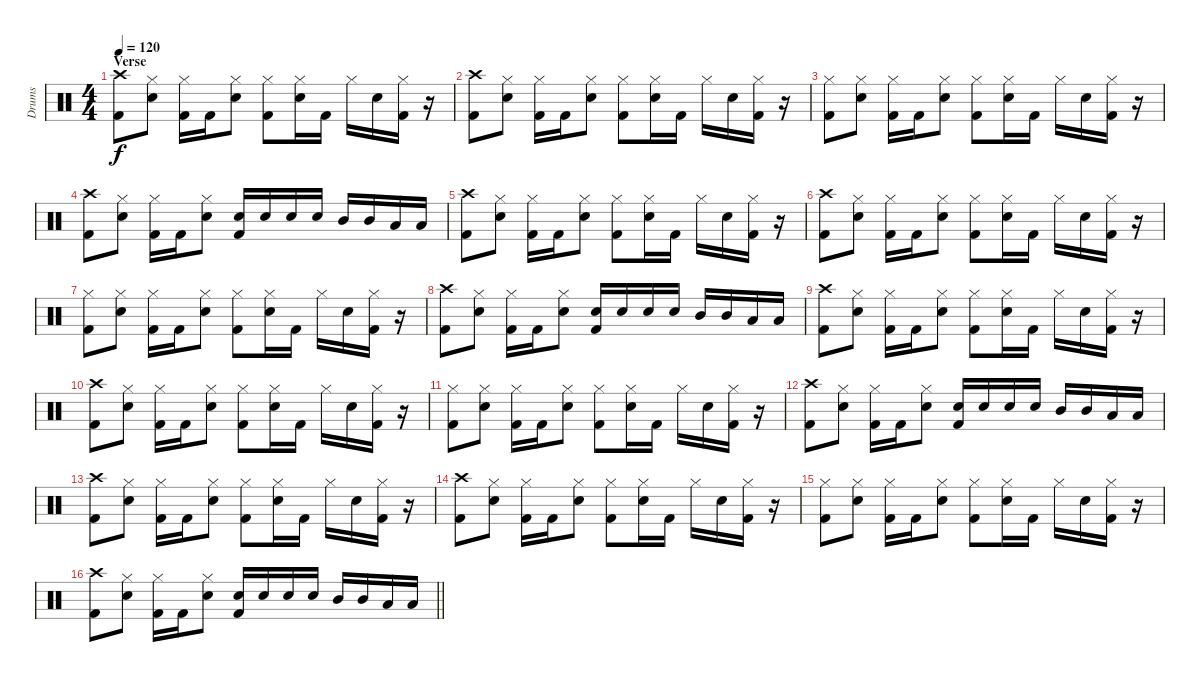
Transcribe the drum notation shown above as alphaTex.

\track ("Drums" "Drums") {instrument percussion}
\staff {score}
\articulation defaults
\ts (4 4)
\section ("" "Verse")
\tempo 120
\clef neutral
\ks c
("Crash high (hit)" "Kick (hit) 2").8{dy f} ("Hi-Hat (closed)" "Snare (hit) 2").8 ("Hi-Hat (closed)" "Kick (hit) 2").16 "Kick (hit) 2".16 ("Hi-Hat (closed)" "Snare (hit) 2").8 ("Hi-Hat (closed)" "Kick (hit) 2").8 ("Hi-Hat (closed)" "Snare (hit) 2").16 "Kick (hit) 2".16 "Hi-Hat (closed)".16 "Snare (hit) 2".16 ("Hi-Hat (closed)" "Kick (hit) 2").16 r.16 |
("Crash high (hit)" "Kick (hit) 2").8 ("Hi-Hat (closed)" "Snare (hit) 2").8 ("Hi-Hat (closed)" "Kick (hit) 2").16 "Kick (hit) 2".16 ("Hi-Hat (closed)" "Snare (hit) 2").8 ("Hi-Hat (closed)" "Kick (hit) 2").8 ("Hi-Hat (closed)" "Snare (hit) 2").16 "Kick (hit) 2".16 "Hi-Hat (closed)".16 "Snare (hit) 2".16 ("Hi-Hat (closed)" "Kick (hit) 2").16 r.16 |
("Hi-Hat (closed)" "Kick (hit) 2").8 ("Hi-Hat (closed)" "Snare (hit) 2").8 ("Hi-Hat (closed)" "Kick (hit) 2").16 "Kick (hit) 2".16 ("Hi-Hat (closed)" "Snare (hit) 2").8 ("Hi-Hat (closed)" "Kick (hit) 2").8 ("Hi-Hat (closed)" "Snare (hit) 2").16 "Kick (hit) 2".16 "Hi-Hat (closed)".16 "Snare (hit) 2".16 ("Hi-Hat (closed)" "Kick (hit) 2").16 r.16 |
("Crash high (hit)" "Kick (hit) 2").8 ("Hi-Hat (closed)" "Snare (hit) 2").8 ("Hi-Hat (closed)" "Kick (hit) 2").16 "Kick (hit) 2".16 ("Hi-Hat (closed)" "Snare (hit) 2").8 ("Snare (hit) 2" "Kick (hit) 2").16 "Snare (hit) 2".16 "Snare (hit) 2".16 "Snare (hit) 2".16 "Mid Tom (hit)".16 "Mid Tom (hit)".16 "Low Tom (hit)".16 "Low Tom (hit)".16 |
("Crash high (hit)" "Kick (hit) 2").8 ("Hi-Hat (closed)" "Snare (hit) 2").8 ("Hi-Hat (closed)" "Kick (hit) 2").16 "Kick (hit) 2".16 ("Hi-Hat (closed)" "Snare (hit) 2").8 ("Hi-Hat (closed)" "Kick (hit) 2").8 ("Hi-Hat (closed)" "Snare (hit) 2").16 "Kick (hit) 2".16 "Hi-Hat (closed)".16 "Snare (hit) 2".16 ("Hi-Hat (closed)" "Kick (hit) 2").16 r.16 |
("Crash high (hit)" "Kick (hit) 2").8 ("Hi-Hat (closed)" "Snare (hit) 2").8 ("Hi-Hat (closed)" "Kick (hit) 2").16 "Kick (hit) 2".16 ("Hi-Hat (closed)" "Snare (hit) 2").8 ("Hi-Hat (closed)" "Kick (hit) 2").8 ("Hi-Hat (closed)" "Snare (hit) 2").16 "Kick (hit) 2".16 "Hi-Hat (closed)".16 "Snare (hit) 2".16 ("Hi-Hat (closed)" "Kick (hit) 2").16 r.16 |
("Hi-Hat (closed)" "Kick (hit) 2").8 ("Hi-Hat (closed)" "Snare (hit) 2").8 ("Hi-Hat (closed)" "Kick (hit) 2").16 "Kick (hit) 2".16 ("Hi-Hat (closed)" "Snare (hit) 2").8 ("Hi-Hat (closed)" "Kick (hit) 2").8 ("Hi-Hat (closed)" "Snare (hit) 2").16 "Kick (hit) 2".16 "Hi-Hat (closed)".16 "Snare (hit) 2".16 ("Hi-Hat (closed)" "Kick (hit) 2").16 r.16 |
("Crash high (hit)" "Kick (hit) 2").8 ("Hi-Hat (closed)" "Snare (hit) 2").8 ("Hi-Hat (closed)" "Kick (hit) 2").16 "Kick (hit) 2".16 ("Hi-Hat (closed)" "Snare (hit) 2").8 ("Snare (hit) 2" "Kick (hit) 2").16 "Snare (hit) 2".16 "Snare (hit) 2".16 "Snare (hit) 2".16 "Mid Tom (hit)".16 "Mid Tom (hit)".16 "Low Tom (hit)".16 "Low Tom (hit)".16 |
("Crash high (hit)" "Kick (hit) 2").8 ("Hi-Hat (closed)" "Snare (hit) 2").8 ("Hi-Hat (closed)" "Kick (hit) 2").16 "Kick (hit) 2".16 ("Hi-Hat (closed)" "Snare (hit) 2").8 ("Hi-Hat (closed)" "Kick (hit) 2").8 ("Hi-Hat (closed)" "Snare (hit) 2").16 "Kick (hit) 2".16 "Hi-Hat (closed)".16 "Snare (hit) 2".16 ("Hi-Hat (closed)" "Kick (hit) 2").16 r.16 |
("Crash high (hit)" "Kick (hit) 2").8 ("Hi-Hat (closed)" "Snare (hit) 2").8 ("Hi-Hat (closed)" "Kick (hit) 2").16 "Kick (hit) 2".16 ("Hi-Hat (closed)" "Snare (hit) 2").8 ("Hi-Hat (closed)" "Kick (hit) 2").8 ("Hi-Hat (closed)" "Snare (hit) 2").16 "Kick (hit) 2".16 "Hi-Hat (closed)".16 "Snare (hit) 2".16 ("Hi-Hat (closed)" "Kick (hit) 2").16 r.16 |
("Hi-Hat (closed)" "Kick (hit) 2").8 ("Hi-Hat (closed)" "Snare (hit) 2").8 ("Hi-Hat (closed)" "Kick (hit) 2").16 "Kick (hit) 2".16 ("Hi-Hat (closed)" "Snare (hit) 2").8 ("Hi-Hat (closed)" "Kick (hit) 2").8 ("Hi-Hat (closed)" "Snare (hit) 2").16 "Kick (hit) 2".16 "Hi-Hat (closed)".16 "Snare (hit) 2".16 ("Hi-Hat (closed)" "Kick (hit) 2").16 r.16 |
("Crash high (hit)" "Kick (hit) 2").8 ("Hi-Hat (closed)" "Snare (hit) 2").8 ("Hi-Hat (closed)" "Kick (hit) 2").16 "Kick (hit) 2".16 ("Hi-Hat (closed)" "Snare (hit) 2").8 ("Snare (hit) 2" "Kick (hit) 2").16 "Snare (hit) 2".16 "Snare (hit) 2".16 "Snare (hit) 2".16 "Mid Tom (hit)".16 "Mid Tom (hit)".16 "Low Tom (hit)".16 "Low Tom (hit)".16 |
("Crash high (hit)" "Kick (hit) 2").8 ("Hi-Hat (closed)" "Snare (hit) 2").8 ("Hi-Hat (closed)" "Kick (hit) 2").16 "Kick (hit) 2".16 ("Hi-Hat (closed)" "Snare (hit) 2").8 ("Hi-Hat (closed)" "Kick (hit) 2").8 ("Hi-Hat (closed)" "Snare (hit) 2").16 "Kick (hit) 2".16 "Hi-Hat (closed)".16 "Snare (hit) 2".16 ("Hi-Hat (closed)" "Kick (hit) 2").16 r.16 |
("Crash high (hit)" "Kick (hit) 2").8 ("Hi-Hat (closed)" "Snare (hit) 2").8 ("Hi-Hat (closed)" "Kick (hit) 2").16 "Kick (hit) 2".16 ("Hi-Hat (closed)" "Snare (hit) 2").8 ("Hi-Hat (closed)" "Kick (hit) 2").8 ("Hi-Hat (closed)" "Snare (hit) 2").16 "Kick (hit) 2".16 "Hi-Hat (closed)".16 "Snare (hit) 2".16 ("Hi-Hat (closed)" "Kick (hit) 2").16 r.16 |
("Hi-Hat (closed)" "Kick (hit) 2").8 ("Hi-Hat (closed)" "Snare (hit) 2").8 ("Hi-Hat (closed)" "Kick (hit) 2").16 "Kick (hit) 2".16 ("Hi-Hat (closed)" "Snare (hit) 2").8 ("Hi-Hat (closed)" "Kick (hit) 2").8 ("Hi-Hat (closed)" "Snare (hit) 2").16 "Kick (hit) 2".16 "Hi-Hat (closed)".16 "Snare (hit) 2".16 ("Hi-Hat (closed)" "Kick (hit) 2").16 r.16 |
\barLineRight lightlight
("Crash high (hit)" "Kick (hit) 2").8 ("Hi-Hat (closed)" "Snare (hit) 2").8 ("Hi-Hat (closed)" "Kick (hit) 2").16 "Kick (hit) 2".16 ("Hi-Hat (closed)" "Snare (hit) 2").8 ("Snare (hit) 2" "Kick (hit) 2").16 "Snare (hit) 2".16 "Snare (hit) 2".16 "Snare (hit) 2".16 "Mid Tom (hit)".16 "Mid Tom (hit)".16 "Low Tom (hit)".16 "Low Tom (hit)".16
